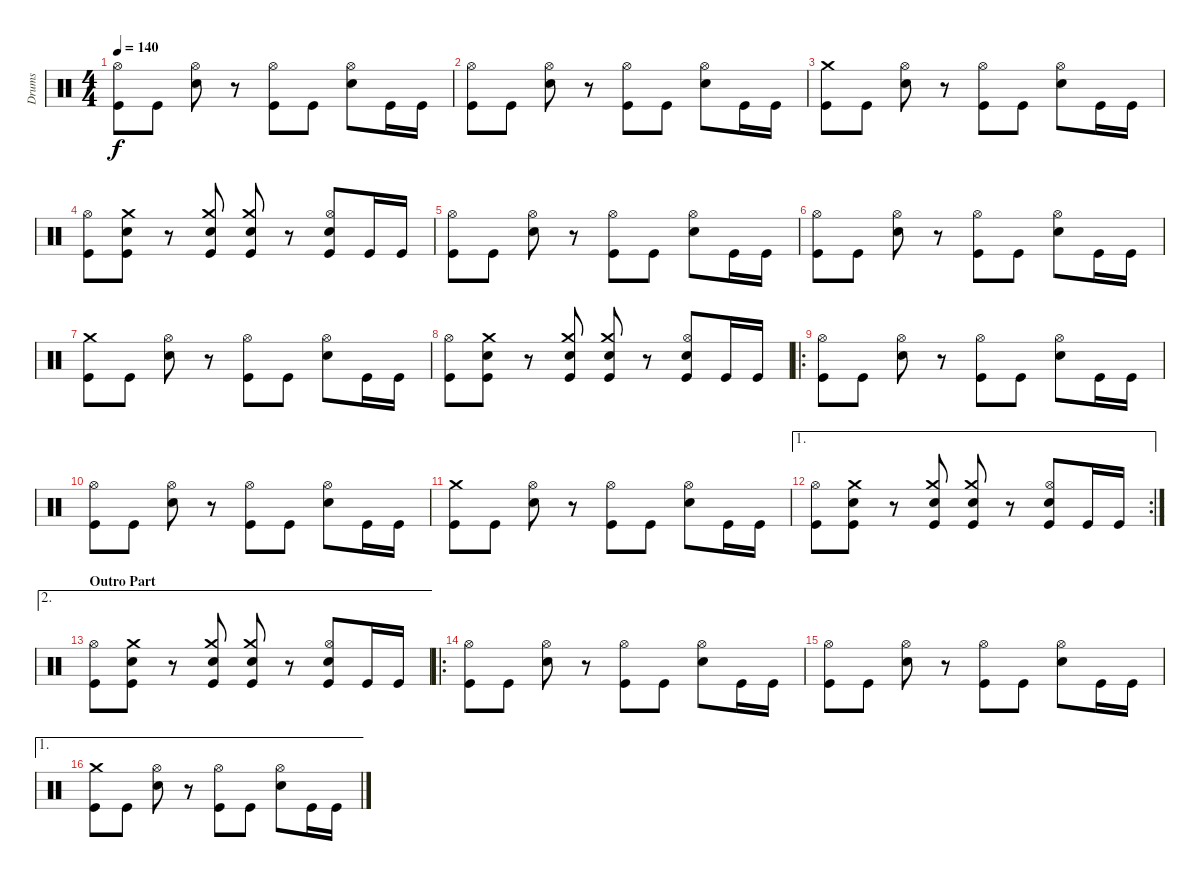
\track ("Drums" "Drums") {instrument percussion}
\staff {score}
\articulation defaults
\ts (4 4)
\tempo 140
\clef neutral
\ks c
("Kick (hit)" "Hi-Hat (open)").8{dy f} "Kick (hit)".8 ("Snare (hit) 2" "Hi-Hat (open)").8 r.8 ("Kick (hit)" "Hi-Hat (open)").8 "Kick (hit)".8 ("Snare (hit) 2" "Hi-Hat (open)").8 "Kick (hit)".16 "Kick (hit)".16 |
("Kick (hit)" "Hi-Hat (open)").8 "Kick (hit)".8 ("Snare (hit) 2" "Hi-Hat (open)").8 r.8 ("Kick (hit)" "Hi-Hat (open)").8 "Kick (hit)".8 ("Snare (hit) 2" "Hi-Hat (open)").8 "Kick (hit)".16 "Kick (hit)".16 |
("Kick (hit)" "Crash medium (hit)").8 "Kick (hit)".8 ("Snare (hit) 2" "Hi-Hat (open)").8 r.8 ("Kick (hit)" "Hi-Hat (open)").8 "Kick (hit)".8 ("Snare (hit) 2" "Hi-Hat (open)").8 "Kick (hit)".16 "Kick (hit)".16 |
("Kick (hit)" "Hi-Hat (open)").8 ("Kick (hit)" "Crash medium (hit)" "Electric Snare (hit)").8 r.8 ("Kick (hit)" "Crash medium (hit)" "Electric Snare (hit)").8 ("Kick (hit)" "Crash medium (hit)" "Electric Snare (hit)").8 r.8 ("Kick (hit)" "Snare (hit) 2" "Hi-Hat (open)").8 "Kick (hit)".16 "Kick (hit)".16 |
("Kick (hit)" "Hi-Hat (open)").8 "Kick (hit)".8 ("Snare (hit) 2" "Hi-Hat (open)").8 r.8 ("Kick (hit)" "Hi-Hat (open)").8 "Kick (hit)".8 ("Snare (hit) 2" "Hi-Hat (open)").8 "Kick (hit)".16 "Kick (hit)".16 |
("Kick (hit)" "Hi-Hat (open)").8 "Kick (hit)".8 ("Snare (hit) 2" "Hi-Hat (open)").8 r.8 ("Kick (hit)" "Hi-Hat (open)").8 "Kick (hit)".8 ("Snare (hit) 2" "Hi-Hat (open)").8 "Kick (hit)".16 "Kick (hit)".16 |
("Kick (hit)" "Crash medium (hit)").8 "Kick (hit)".8 ("Snare (hit) 2" "Hi-Hat (open)").8 r.8 ("Kick (hit)" "Hi-Hat (open)").8 "Kick (hit)".8 ("Snare (hit) 2" "Hi-Hat (open)").8 "Kick (hit)".16 "Kick (hit)".16 |
("Kick (hit)" "Hi-Hat (open)").8 ("Kick (hit)" "Crash medium (hit)" "Electric Snare (hit)").8 r.8 ("Kick (hit)" "Crash medium (hit)" "Electric Snare (hit)").8 ("Kick (hit)" "Crash medium (hit)" "Electric Snare (hit)").8 r.8 ("Kick (hit)" "Snare (hit) 2" "Hi-Hat (open)").8 "Kick (hit)".16 "Kick (hit)".16 |
\ro
("Kick (hit)" "Hi-Hat (open)").8 "Kick (hit)".8 ("Snare (hit) 2" "Hi-Hat (open)").8 r.8 ("Kick (hit)" "Hi-Hat (open)").8 "Kick (hit)".8 ("Snare (hit) 2" "Hi-Hat (open)").8 "Kick (hit)".16 "Kick (hit)".16 |
("Kick (hit)" "Hi-Hat (open)").8 "Kick (hit)".8 ("Snare (hit) 2" "Hi-Hat (open)").8 r.8 ("Kick (hit)" "Hi-Hat (open)").8 "Kick (hit)".8 ("Snare (hit) 2" "Hi-Hat (open)").8 "Kick (hit)".16 "Kick (hit)".16 |
("Kick (hit)" "Crash medium (hit)").8 "Kick (hit)".8 ("Snare (hit) 2" "Hi-Hat (open)").8 r.8 ("Kick (hit)" "Hi-Hat (open)").8 "Kick (hit)".8 ("Snare (hit) 2" "Hi-Hat (open)").8 "Kick (hit)".16 "Kick (hit)".16 |
\ae 1
\rc 2
("Kick (hit)" "Hi-Hat (open)").8 ("Kick (hit)" "Crash medium (hit)" "Electric Snare (hit)").8 r.8 ("Kick (hit)" "Crash medium (hit)" "Electric Snare (hit)").8 ("Kick (hit)" "Crash medium (hit)" "Electric Snare (hit)").8 r.8 ("Kick (hit)" "Snare (hit) 2" "Hi-Hat (open)").8 "Kick (hit)".16 "Kick (hit)".16 |
\ae 2
\section ("" "Outro Part")
("Kick (hit)" "Hi-Hat (open)").8 ("Kick (hit)" "Crash medium (hit)" "Electric Snare (hit)").8 r.8 ("Kick (hit)" "Crash medium (hit)" "Electric Snare (hit)").8 ("Kick (hit)" "Crash medium (hit)" "Electric Snare (hit)").8 r.8 ("Kick (hit)" "Snare (hit) 2" "Hi-Hat (open)").8 "Kick (hit)".16 "Kick (hit)".16 |
\ro
("Kick (hit)" "Hi-Hat (open)").8 "Kick (hit)".8 ("Snare (hit) 2" "Hi-Hat (open)").8 r.8 ("Kick (hit)" "Hi-Hat (open)").8 "Kick (hit)".8 ("Snare (hit) 2" "Hi-Hat (open)").8 "Kick (hit)".16 "Kick (hit)".16 |
("Kick (hit)" "Hi-Hat (open)").8 "Kick (hit)".8 ("Snare (hit) 2" "Hi-Hat (open)").8 r.8 ("Kick (hit)" "Hi-Hat (open)").8 "Kick (hit)".8 ("Snare (hit) 2" "Hi-Hat (open)").8 "Kick (hit)".16 "Kick (hit)".16 |
\ae 1
("Kick (hit)" "Crash medium (hit)").8 "Kick (hit)".8 ("Snare (hit) 2" "Hi-Hat (open)").8 r.8 ("Kick (hit)" "Hi-Hat (open)").8 "Kick (hit)".8 ("Snare (hit) 2" "Hi-Hat (open)").8 "Kick (hit)".16 "Kick (hit)".16
